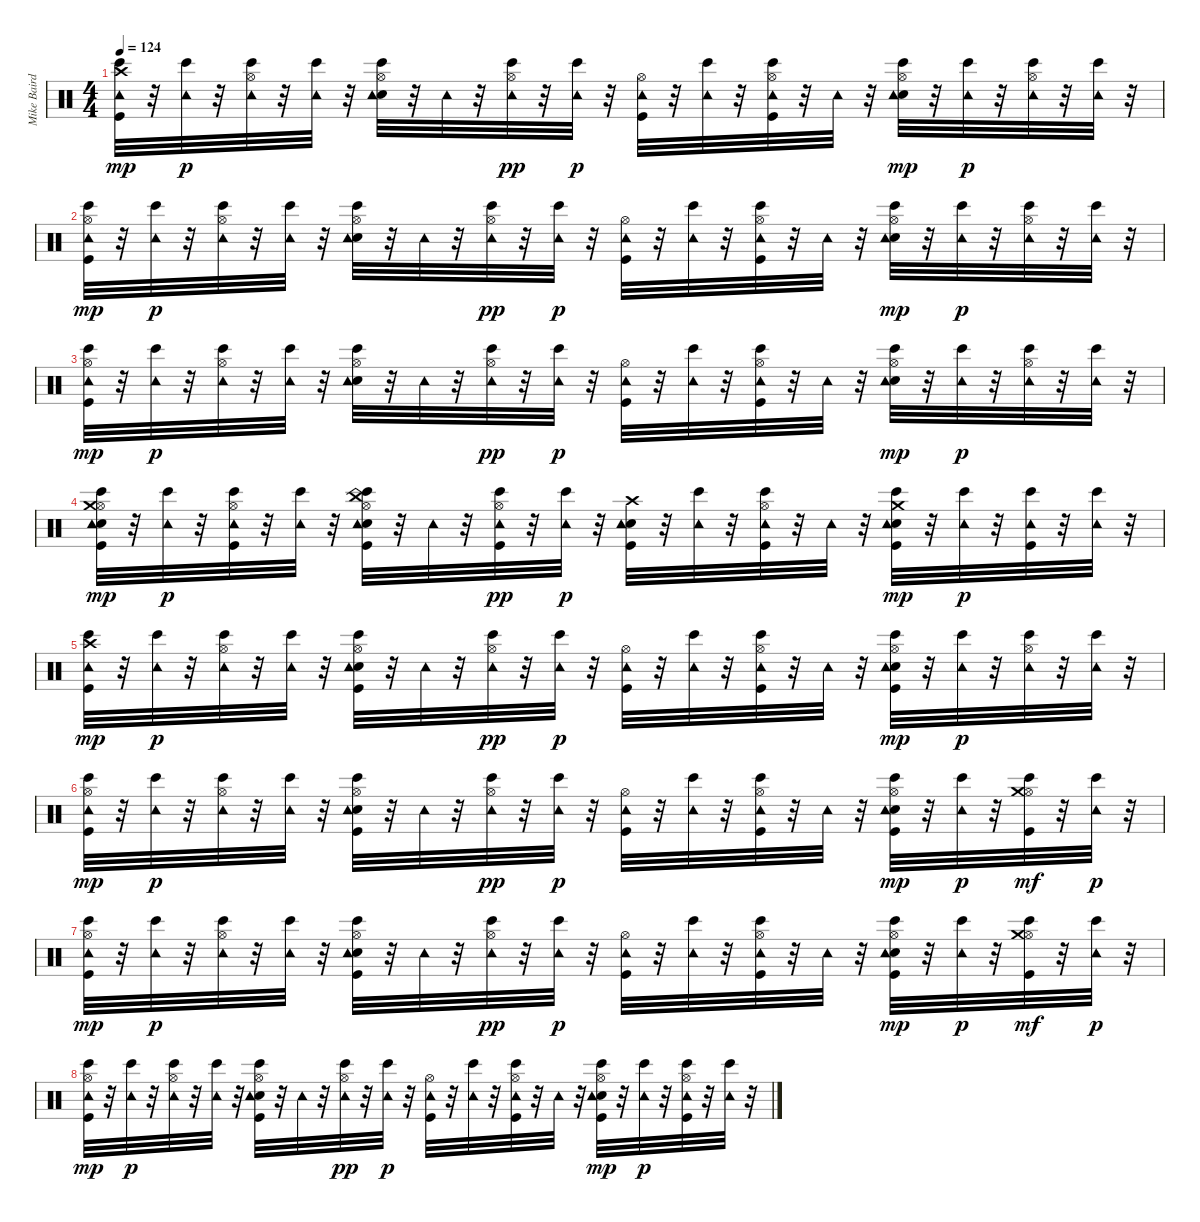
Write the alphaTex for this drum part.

\track ("Mike Baird [drums]" "Mike Baird") {instrument percussion}
\staff {score}
\articulation defaults
\ts (4 4)
\tempo 124
\clef neutral
\ks c
("Bongo High (hit)" "Kick (hit)" "Crash high (hit)" "Tambourine (hit)").32{dy mp} r.32 ("Tambourine (hit)" "Bongo High (hit)").32{dy p} r.32 ("Hi-Hat (open)" "Tambourine (hit)" "Bongo High (hit)").32 r.32 ("Tambourine (hit)" "Bongo High (hit)").32 r.32 ("Electric Snare (hit)" "Hi-Hat (open)" "Bongo High (hit)" "Tambourine (hit)").32 r.32 "Tambourine (hit)".32 r.32 ("Hi-Hat (open)" "Tambourine (hit)" "Bongo High (hit)").32{dy pp} r.32 ("Bongo High (hit)" "Tambourine (hit)").32{dy p} r.32 ("Kick (hit)" "Hi-Hat (open)" "Tambourine (hit)").32 r.32 ("Bongo High (hit)" "Tambourine (hit)").32 r.32 ("Bongo High (hit)" "Kick (hit)" "Hi-Hat (open)" "Tambourine (hit)").32 r.32 "Tambourine (hit)".32 r.32 ("Bongo High (hit)" "Electric Snare (hit)" "Hi-Hat (open)" "Tambourine (hit)").32{dy mp} r.32 ("Tambourine (hit)" "Bongo High (hit)").32{dy p} r.32 ("Bongo High (hit)" "Hi-Hat (open)" "Tambourine (hit)").32 r.32 ("Tambourine (hit)" "Bongo High (hit)").32 r.32 |
("Bongo High (hit)" "Kick (hit)" "Hi-Hat (open)" "Tambourine (hit)").32{dy mp} r.32 ("Tambourine (hit)" "Bongo High (hit)").32{dy p} r.32 ("Hi-Hat (open)" "Tambourine (hit)" "Bongo High (hit)").32 r.32 ("Tambourine (hit)" "Bongo High (hit)").32 r.32 ("Electric Snare (hit)" "Hi-Hat (open)" "Bongo High (hit)" "Tambourine (hit)").32 r.32 "Tambourine (hit)".32 r.32 ("Hi-Hat (open)" "Tambourine (hit)" "Bongo High (hit)").32{dy pp} r.32 ("Bongo High (hit)" "Tambourine (hit)").32{dy p} r.32 ("Kick (hit)" "Hi-Hat (open)" "Tambourine (hit)").32 r.32 ("Bongo High (hit)" "Tambourine (hit)").32 r.32 ("Bongo High (hit)" "Kick (hit)" "Hi-Hat (open)" "Tambourine (hit)").32 r.32 "Tambourine (hit)".32 r.32 ("Bongo High (hit)" "Electric Snare (hit)" "Hi-Hat (open)" "Tambourine (hit)").32{dy mp} r.32 ("Tambourine (hit)" "Bongo High (hit)").32{dy p} r.32 ("Bongo High (hit)" "Hi-Hat (open)" "Tambourine (hit)").32 r.32 ("Tambourine (hit)" "Bongo High (hit)").32 r.32 |
("Bongo High (hit)" "Kick (hit)" "Hi-Hat (open)" "Tambourine (hit)").32{dy mp} r.32 ("Tambourine (hit)" "Bongo High (hit)").32{dy p} r.32 ("Hi-Hat (open)" "Tambourine (hit)" "Bongo High (hit)").32 r.32 ("Tambourine (hit)" "Bongo High (hit)").32 r.32 ("Electric Snare (hit)" "Hi-Hat (open)" "Bongo High (hit)" "Tambourine (hit)").32 r.32 "Tambourine (hit)".32 r.32 ("Hi-Hat (open)" "Tambourine (hit)" "Bongo High (hit)").32{dy pp} r.32 ("Bongo High (hit)" "Tambourine (hit)").32{dy p} r.32 ("Kick (hit)" "Hi-Hat (open)" "Tambourine (hit)").32 r.32 ("Bongo High (hit)" "Tambourine (hit)").32 r.32 ("Bongo High (hit)" "Kick (hit)" "Hi-Hat (open)" "Tambourine (hit)").32 r.32 "Tambourine (hit)".32 r.32 ("Bongo High (hit)" "Electric Snare (hit)" "Hi-Hat (open)" "Tambourine (hit)").32{dy mp} r.32 ("Tambourine (hit)" "Bongo High (hit)").32{dy p} r.32 ("Bongo High (hit)" "Hi-Hat (open)" "Tambourine (hit)").32 r.32 ("Tambourine (hit)" "Bongo High (hit)").32 r.32 |
("Bongo High (hit)" "Kick (hit)" "Electric Snare (hit)" "Hi-Hat (open)" "Crash medium (hit)" "Tambourine (hit)").32{dy mp} r.32 ("Tambourine (hit)" "Bongo High (hit)").32{dy p} r.32 ("Kick (hit)" "Hi-Hat (open)" "Tambourine (hit)" "Bongo High (hit)").32 r.32 ("Tambourine (hit)" "Bongo High (hit)").32 r.32 ("Kick (hit)" "Electric Snare (hit)" "Hi-Hat (open)" "China (hit)" "Bongo High (hit)" "Tambourine (hit)").32 r.32 "Tambourine (hit)".32 r.32 ("Kick (hit)" "Hi-Hat (open)" "Tambourine (hit)" "Bongo High (hit)").32{dy pp} r.32 ("Bongo High (hit)" "Tambourine (hit)").32{dy p} r.32 ("Kick (hit)" "Electric Snare (hit)" "Crash high (hit)" "Tambourine (hit)").32 r.32 ("Bongo High (hit)" "Tambourine (hit)").32 r.32 ("Bongo High (hit)" "Kick (hit)" "Hi-Hat (open)" "Tambourine (hit)").32 r.32 "Tambourine (hit)".32 r.32 ("Bongo High (hit)" "Kick (hit)" "Electric Snare (hit)" "Crash medium (hit)" "Tambourine (hit)").32{dy mp} r.32 ("Tambourine (hit)" "Bongo High (hit)").32{dy p} r.32 ("Bongo High (hit)" "Kick (hit)" "Tambourine (hit)").32 r.32 ("Tambourine (hit)" "Bongo High (hit)").32 r.32 |
("Bongo High (hit)" "Kick (hit)" "Crash high (hit)" "Tambourine (hit)").32{dy mp} r.32 ("Tambourine (hit)" "Bongo High (hit)").32{dy p} r.32 ("Hi-Hat (open)" "Tambourine (hit)" "Bongo High (hit)").32 r.32 ("Tambourine (hit)" "Bongo High (hit)").32 r.32 ("Kick (hit)" "Electric Snare (hit)" "Hi-Hat (open)" "Bongo High (hit)" "Tambourine (hit)").32 r.32 "Tambourine (hit)".32 r.32 ("Hi-Hat (open)" "Tambourine (hit)" "Bongo High (hit)").32{dy pp} r.32 ("Bongo High (hit)" "Tambourine (hit)").32{dy p} r.32 ("Kick (hit)" "Hi-Hat (open)" "Tambourine (hit)").32 r.32 ("Bongo High (hit)" "Tambourine (hit)").32 r.32 ("Bongo High (hit)" "Kick (hit)" "Hi-Hat (open)" "Tambourine (hit)").32 r.32 "Tambourine (hit)".32 r.32 ("Bongo High (hit)" "Kick (hit)" "Electric Snare (hit)" "Hi-Hat (open)" "Tambourine (hit)").32{dy mp} r.32 ("Tambourine (hit)" "Bongo High (hit)").32{dy p} r.32 ("Bongo High (hit)" "Hi-Hat (open)" "Tambourine (hit)").32 r.32 ("Tambourine (hit)" "Bongo High (hit)").32 r.32 |
("Bongo High (hit)" "Kick (hit)" "Hi-Hat (open)" "Tambourine (hit)").32{dy mp} r.32 ("Tambourine (hit)" "Bongo High (hit)").32{dy p} r.32 ("Hi-Hat (open)" "Tambourine (hit)" "Bongo High (hit)").32 r.32 ("Tambourine (hit)" "Bongo High (hit)").32 r.32 ("Kick (hit)" "Electric Snare (hit)" "Hi-Hat (open)" "Bongo High (hit)" "Tambourine (hit)").32 r.32 "Tambourine (hit)".32 r.32 ("Hi-Hat (open)" "Tambourine (hit)" "Bongo High (hit)").32{dy pp} r.32 ("Bongo High (hit)" "Tambourine (hit)").32{dy p} r.32 ("Kick (hit)" "Hi-Hat (open)" "Tambourine (hit)").32 r.32 ("Bongo High (hit)" "Tambourine (hit)").32 r.32 ("Bongo High (hit)" "Kick (hit)" "Hi-Hat (open)" "Tambourine (hit)").32 r.32 "Tambourine (hit)".32 r.32 ("Bongo High (hit)" "Kick (hit)" "Electric Snare (hit)" "Hi-Hat (open)" "Tambourine (hit)").32{dy mp} r.32 ("Tambourine (hit)" "Bongo High (hit)").32{dy p} r.32 ("Bongo High (hit)" "Kick (hit)" "Hi-Hat (open)" "Crash medium (hit)").32{dy mf} r.32 ("Tambourine (hit)" "Bongo High (hit)").32{dy p} r.32 |
("Bongo High (hit)" "Kick (hit)" "Hi-Hat (open)" "Tambourine (hit)").32{dy mp} r.32 ("Tambourine (hit)" "Bongo High (hit)").32{dy p} r.32 ("Hi-Hat (open)" "Tambourine (hit)" "Bongo High (hit)").32 r.32 ("Tambourine (hit)" "Bongo High (hit)").32 r.32 ("Kick (hit)" "Electric Snare (hit)" "Hi-Hat (open)" "Bongo High (hit)" "Tambourine (hit)").32 r.32 "Tambourine (hit)".32 r.32 ("Hi-Hat (open)" "Tambourine (hit)" "Bongo High (hit)").32{dy pp} r.32 ("Bongo High (hit)" "Tambourine (hit)").32{dy p} r.32 ("Kick (hit)" "Hi-Hat (open)" "Tambourine (hit)").32 r.32 ("Bongo High (hit)" "Tambourine (hit)").32 r.32 ("Bongo High (hit)" "Kick (hit)" "Hi-Hat (open)" "Tambourine (hit)").32 r.32 "Tambourine (hit)".32 r.32 ("Bongo High (hit)" "Kick (hit)" "Electric Snare (hit)" "Hi-Hat (open)" "Tambourine (hit)").32{dy mp} r.32 ("Tambourine (hit)" "Bongo High (hit)").32{dy p} r.32 ("Bongo High (hit)" "Kick (hit)" "Hi-Hat (open)" "Crash medium (hit)").32{dy mf} r.32 ("Tambourine (hit)" "Bongo High (hit)").32{dy p} r.32 |
("Bongo High (hit)" "Kick (hit)" "Hi-Hat (open)" "Tambourine (hit)").32{dy mp} r.32 ("Tambourine (hit)" "Bongo High (hit)").32{dy p} r.32 ("Hi-Hat (open)" "Tambourine (hit)" "Bongo High (hit)").32 r.32 ("Tambourine (hit)" "Bongo High (hit)").32 r.32 ("Kick (hit)" "Electric Snare (hit)" "Hi-Hat (open)" "Bongo High (hit)" "Tambourine (hit)").32 r.32 "Tambourine (hit)".32 r.32 ("Hi-Hat (open)" "Tambourine (hit)" "Bongo High (hit)").32{dy pp} r.32 ("Bongo High (hit)" "Tambourine (hit)").32{dy p} r.32 ("Kick (hit)" "Hi-Hat (open)" "Tambourine (hit)").32 r.32 ("Bongo High (hit)" "Tambourine (hit)").32 r.32 ("Bongo High (hit)" "Kick (hit)" "Hi-Hat (open)" "Tambourine (hit)").32 r.32 "Tambourine (hit)".32 r.32 ("Bongo High (hit)" "Kick (hit)" "Electric Snare (hit)" "Hi-Hat (open)" "Tambourine (hit)").32{dy mp} r.32 ("Tambourine (hit)" "Bongo High (hit)").32{dy p} r.32 ("Bongo High (hit)" "Kick (hit)" "Hi-Hat (open)" "Tambourine (hit)").32 r.32 ("Tambourine (hit)" "Bongo High (hit)").32 r.32
